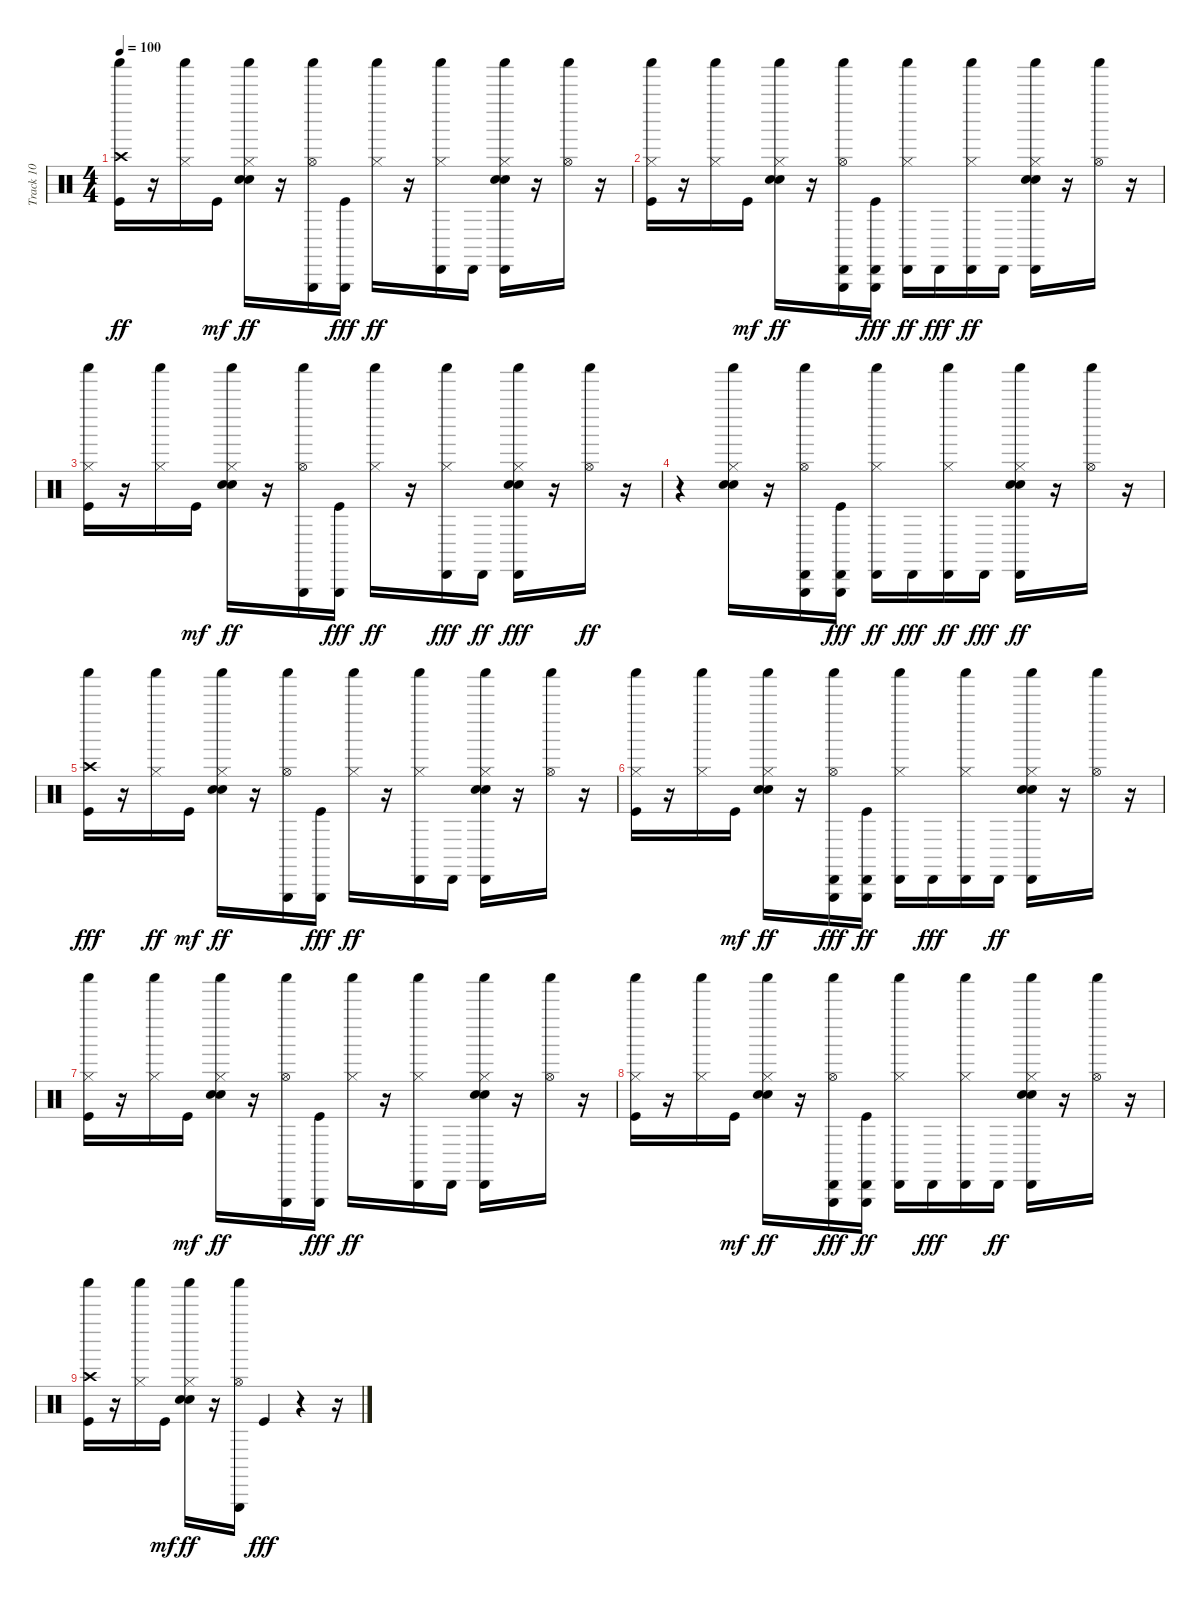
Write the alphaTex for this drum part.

\track ("Track 10" "Track 10") {instrument percussion}
\staff {score}
\articulation defaults
\ts (4 4)
\tempo 100
\clef neutral
\ks c
("Shaker (hit)" "Kick (hit)" "Crash high (hit)").16{dy ff} r.16 ("Hi-Hat (closed)" "Shaker (hit)").16 "Kick (hit)".16{dy mf} ("Shaker (hit)" "Hi-Hat (closed)" "Electric Snare (hit)" "Hand Clap (hit)").16{dy ff} r.16 ("Triangle (hit)" "Shaker (hit)" "Hi-Hat (open)").16 ("Kick (hit)" "Triangle (hit)").16{dy fff} ("Hi-Hat (closed)" "Shaker (hit)").16{dy ff} r.16 ("Hi-Hat (closed)" "Cabasa (hit)" "Shaker (hit)").16 "Cabasa (hit)".16 ("Hi-Hat (closed)" "Cabasa (hit)" "Electric Snare (hit)" "Hand Clap (hit)" "Shaker (hit)").16 r.16 ("Hi-Hat (open)" "Shaker (hit)").16 r.16 |
("Kick (hit)" "Hi-Hat (closed)" "Shaker (hit)").16 r.16 ("Shaker (hit)" "Hi-Hat (closed)").16 "Kick (hit)".16{dy mf} ("Shaker (hit)" "Hand Clap (hit)" "Electric Snare (hit)" "Hi-Hat (closed)").16{dy ff} r.16 ("Cabasa (hit)" "Shaker (hit)" "Triangle (hit)" "Hi-Hat (open)").16 ("Cabasa (hit)" "Triangle (hit)" "Kick (hit)").16{dy fff} ("Hi-Hat (closed)" "Cabasa (hit)" "Shaker (hit)").16{dy ff} "Cabasa (hit)".16{dy fff} ("Hi-Hat (closed)" "Shaker (hit)" "Cabasa (hit)").16{dy ff} "Cabasa (hit)".16 ("Cabasa (hit)" "Shaker (hit)" "Hand Clap (hit)" "Electric Snare (hit)" "Hi-Hat (closed)").16 r.16 ("Shaker (hit)" "Hi-Hat (open)").16 r.16 |
("Shaker (hit)" "Kick (hit)" "Hi-Hat (closed)").16 r.16 ("Hi-Hat (closed)" "Shaker (hit)").16 "Kick (hit)".16{dy mf} ("Shaker (hit)" "Hand Clap (hit)" "Electric Snare (hit)" "Hi-Hat (closed)").16{dy ff} r.16 ("Triangle (hit)" "Shaker (hit)" "Hi-Hat (open)").16 ("Triangle (hit)" "Kick (hit)").16{dy fff} ("Shaker (hit)" "Hi-Hat (closed)").16{dy ff} r.16 ("Shaker (hit)" "Hi-Hat (closed)" "Cabasa (hit)").16{dy fff} "Cabasa (hit)".16{dy ff} ("Electric Snare (hit)" "Hand Clap (hit)" "Hi-Hat (closed)" "Cabasa (hit)" "Shaker (hit)").16{dy fff} r.16 ("Hi-Hat (open)" "Shaker (hit)").16{dy ff} r.16 |
r.4 ("Shaker (hit)" "Hi-Hat (closed)" "Electric Snare (hit)" "Hand Clap (hit)").16 r.16 ("Cabasa (hit)" "Triangle (hit)" "Shaker (hit)" "Hi-Hat (open)").16 ("Triangle (hit)" "Kick (hit)" "Cabasa (hit)").16{dy fff} ("Cabasa (hit)" "Shaker (hit)" "Hi-Hat (closed)").16{dy ff} "Cabasa (hit)".16{dy fff} ("Shaker (hit)" "Cabasa (hit)" "Hi-Hat (closed)").16{dy ff} "Cabasa (hit)".16{dy fff} ("Electric Snare (hit)" "Hi-Hat (closed)" "Shaker (hit)" "Hand Clap (hit)" "Cabasa (hit)").16{dy ff} r.16 ("Hi-Hat (open)" "Shaker (hit)").16 r.16 |
("Crash high (hit)" "Shaker (hit)" "Kick (hit)").16{dy fff} r.16 ("Hi-Hat (closed)" "Shaker (hit)").16{dy ff} "Kick (hit)".16{dy mf} ("Electric Snare (hit)" "Hi-Hat (closed)" "Hand Clap (hit)" "Shaker (hit)").16{dy ff} r.16 ("Hi-Hat (open)" "Triangle (hit)" "Shaker (hit)").16 ("Kick (hit)" "Triangle (hit)").16{dy fff} ("Shaker (hit)" "Hi-Hat (closed)").16{dy ff} r.16 ("Shaker (hit)" "Hi-Hat (closed)" "Cabasa (hit)").16 "Cabasa (hit)".16 ("Electric Snare (hit)" "Hi-Hat (closed)" "Cabasa (hit)" "Shaker (hit)" "Hand Clap (hit)").16 r.16 ("Hi-Hat (open)" "Shaker (hit)").16 r.16 |
("Kick (hit)" "Shaker (hit)" "Hi-Hat (closed)").16 r.16 ("Shaker (hit)" "Hi-Hat (closed)").16 "Kick (hit)".16{dy mf} ("Electric Snare (hit)" "Hi-Hat (closed)" "Shaker (hit)" "Hand Clap (hit)").16{dy ff} r.16 ("Shaker (hit)" "Triangle (hit)" "Hi-Hat (open)" "Cabasa (hit)").16{dy fff} ("Kick (hit)" "Cabasa (hit)" "Triangle (hit)").16{dy ff} ("Cabasa (hit)" "Hi-Hat (closed)" "Shaker (hit)").16 "Cabasa (hit)".16{dy fff} ("Shaker (hit)" "Hi-Hat (closed)" "Cabasa (hit)").16 "Cabasa (hit)".16{dy ff} ("Hand Clap (hit)" "Electric Snare (hit)" "Hi-Hat (closed)" "Cabasa (hit)" "Shaker (hit)").16 r.16 ("Shaker (hit)" "Hi-Hat (open)").16 r.16 |
("Shaker (hit)" "Kick (hit)" "Hi-Hat (closed)").16 r.16 ("Hi-Hat (closed)" "Shaker (hit)").16 "Kick (hit)".16{dy mf} ("Shaker (hit)" "Electric Snare (hit)" "Hi-Hat (closed)" "Hand Clap (hit)").16{dy ff} r.16 ("Hi-Hat (open)" "Triangle (hit)" "Shaker (hit)").16 ("Kick (hit)" "Triangle (hit)").16{dy fff} ("Shaker (hit)" "Hi-Hat (closed)").16{dy ff} r.16 ("Cabasa (hit)" "Shaker (hit)" "Hi-Hat (closed)").16 "Cabasa (hit)".16 ("Shaker (hit)" "Hi-Hat (closed)" "Cabasa (hit)" "Hand Clap (hit)" "Electric Snare (hit)").16 r.16 ("Shaker (hit)" "Hi-Hat (open)").16 r.16 |
("Kick (hit)" "Shaker (hit)" "Hi-Hat (closed)").16 r.16 ("Shaker (hit)" "Hi-Hat (closed)").16 "Kick (hit)".16{dy mf} ("Electric Snare (hit)" "Hi-Hat (closed)" "Shaker (hit)" "Hand Clap (hit)").16{dy ff} r.16 ("Shaker (hit)" "Triangle (hit)" "Hi-Hat (open)" "Cabasa (hit)").16{dy fff} ("Kick (hit)" "Cabasa (hit)" "Triangle (hit)").16{dy ff} ("Cabasa (hit)" "Hi-Hat (closed)" "Shaker (hit)").16 "Cabasa (hit)".16{dy fff} ("Shaker (hit)" "Hi-Hat (closed)" "Cabasa (hit)").16 "Cabasa (hit)".16{dy ff} ("Hand Clap (hit)" "Electric Snare (hit)" "Hi-Hat (closed)" "Cabasa (hit)" "Shaker (hit)").16 r.16 ("Shaker (hit)" "Hi-Hat (open)").16 r.16 |
("Shaker (hit)" "Kick (hit)" "Crash high (hit)").16 r.16 ("Hi-Hat (closed)" "Shaker (hit)").16 "Kick (hit)".16{dy mf} ("Shaker (hit)" "Hi-Hat (closed)" "Electric Snare (hit)" "Hand Clap (hit)").16{dy ff} r.16 ("Triangle (hit)" "Shaker (hit)" "Hi-Hat (open)").16 "Kick (hit)".4{dy fff} r.4 r.16
